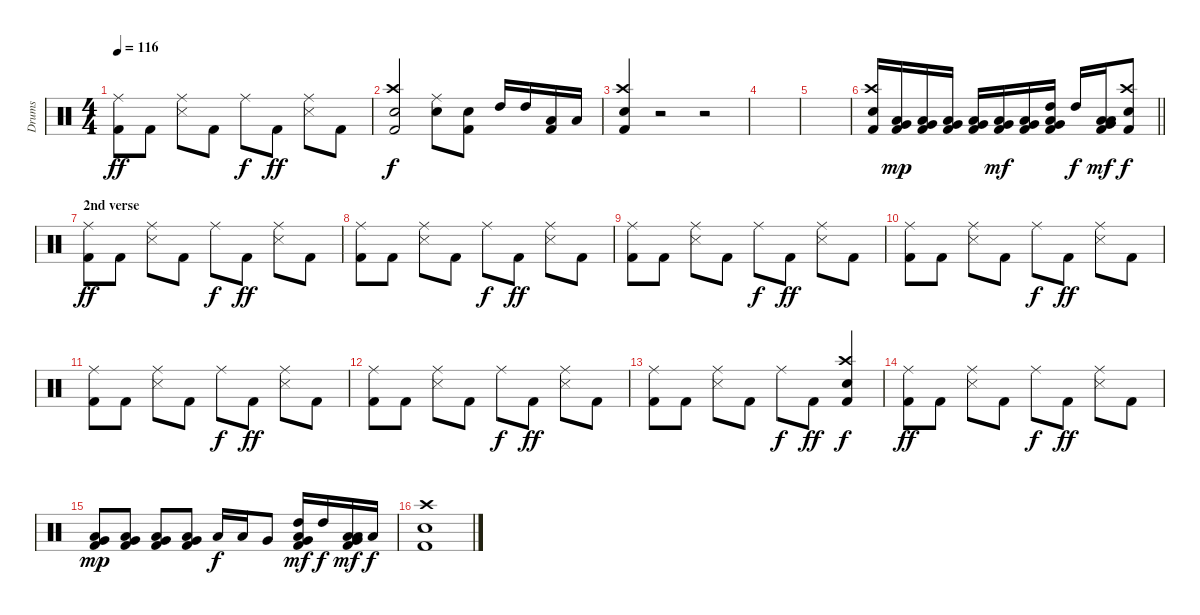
\track ("Drums" "Drums") {instrument percussion}
\staff {score}
\articulation defaults
\ts (4 4)
\tempo 116
\clef neutral
\ks c
("Ride (middle)" "Kick (hit) 2").8{dy ff} "Kick (hit) 2".8 ("Ride (middle)" "Snare (side stick) 3").8 "Kick (hit) 2".8 "Ride (middle)".8{dy f} "Kick (hit) 2".8{dy ff} ("Ride (middle)" "Snare (side stick) 3").8 "Kick (hit) 2".8 |
("Crash high (hit)" "Electric Snare (hit)" "Kick (hit) 2").2{dy f} ("Ride (middle)" "Snare (hit) 2").8 ("Snare (hit) 2" "Kick (hit) 2").8 "High Tom (hit)".16 "High Tom (hit)".16 ("Low Tom (hit)" "Kick (hit) 2").16 "Low Tom (hit)".16 |
("Crash high (hit)" "Electric Snare (hit)" "Kick (hit) 2").4 r.2 r.2 |
|
|
\barLineRight lightlight
("Crash high (hit)" "Electric Snare (hit)" "Kick (hit) 2").16{volume 16} ("Very Low Tom (hit)" "Low Tom (hit)" "Kick (hit) 2").16{dy mp volume 16} ("Very Low Tom (hit)" "Low Tom (hit)" "Kick (hit) 2").16{volume 16} ("Very Low Tom (hit)" "Low Tom (hit)" "Kick (hit) 2").16{volume 16} ("Very Low Tom (hit)" "Low Tom (hit)" "Kick (hit) 2").16{volume 16} ("Very Low Tom (hit)" "Low Tom (hit)" "Kick (hit) 2").16{dy mf volume 16} ("Very Low Tom (hit)" "Low Tom (hit)" "Kick (hit) 2").16{volume 16} ("Very Low Tom (hit)" "Low Tom (hit)" "High Tom (hit)" "Kick (hit) 2").16{volume 16} "High Tom (hit)".16{dy f volume 16} ("Very Low Tom (hit)" "Low Tom (hit)" "Low Tom (hit)" "Kick (hit) 2").16{dy mf volume 16} ("Crash high (hit)" "Electric Snare (hit)" "Kick (hit) 2").8{dy f volume 16} |
\section ("" "2nd verse")
("Ride (middle)" "Kick (hit) 2").8{dy ff} "Kick (hit) 2".8 ("Ride (middle)" "Snare (side stick) 3").8 "Kick (hit) 2".8 "Ride (middle)".8{dy f} "Kick (hit) 2".8{dy ff} ("Ride (middle)" "Snare (side stick) 3").8 "Kick (hit) 2".8 |
("Ride (middle)" "Kick (hit) 2").8 "Kick (hit) 2".8 ("Ride (middle)" "Snare (side stick) 3").8 "Kick (hit) 2".8 "Ride (middle)".8{dy f} "Kick (hit) 2".8{dy ff} ("Ride (middle)" "Snare (side stick) 3").8 "Kick (hit) 2".8 |
("Ride (middle)" "Kick (hit) 2").8 "Kick (hit) 2".8 ("Ride (middle)" "Snare (side stick) 3").8 "Kick (hit) 2".8 "Ride (middle)".8{dy f} "Kick (hit) 2".8{dy ff} ("Ride (middle)" "Snare (side stick) 3").8 "Kick (hit) 2".8 |
("Ride (middle)" "Kick (hit) 2").8 "Kick (hit) 2".8 ("Ride (middle)" "Snare (side stick) 3").8 "Kick (hit) 2".8 "Ride (middle)".8{dy f} "Kick (hit) 2".8{dy ff} ("Ride (middle)" "Snare (side stick) 3").8 "Kick (hit) 2".8 |
("Ride (middle)" "Kick (hit) 2").8 "Kick (hit) 2".8 ("Ride (middle)" "Snare (side stick) 3").8 "Kick (hit) 2".8 "Ride (middle)".8{dy f} "Kick (hit) 2".8{dy ff} ("Ride (middle)" "Snare (side stick) 3").8 "Kick (hit) 2".8 |
("Ride (middle)" "Kick (hit) 2").8 "Kick (hit) 2".8 ("Ride (middle)" "Snare (side stick) 3").8 "Kick (hit) 2".8 "Ride (middle)".8{dy f} "Kick (hit) 2".8{dy ff} ("Ride (middle)" "Snare (side stick) 3").8 "Kick (hit) 2".8 |
("Ride (middle)" "Kick (hit) 2").8 "Kick (hit) 2".8 ("Ride (middle)" "Snare (side stick) 3").8 "Kick (hit) 2".8 "Ride (middle)".8{dy f} "Kick (hit) 2".8{dy ff} ("Crash high (hit)" "Electric Snare (hit)" "Kick (hit) 2").4{dy f} |
("Ride (middle)" "Kick (hit) 2").8{dy ff} "Kick (hit) 2".8 ("Ride (middle)" "Snare (side stick) 3").8 "Kick (hit) 2".8 "Ride (middle)".8{dy f} "Kick (hit) 2".8{dy ff} ("Ride (middle)" "Snare (side stick) 3").8 "Kick (hit) 2".8 |
("Very Low Tom (hit)" "Low Tom (hit)" "Kick (hit) 2").8{dy mp volume 16} ("Very Low Tom (hit)" "Low Tom (hit)" "Kick (hit) 2").8{volume 16} ("Very Low Tom (hit)" "Low Tom (hit)" "Kick (hit) 2").8{volume 16} ("Very Low Tom (hit)" "Low Tom (hit)" "Kick (hit) 2").8{volume 16} "Low Tom (hit)".16{dy f volume 16} "Low Tom (hit)".16{volume 16} "Very Low Tom (hit)".8{volume 16} ("Very Low Tom (hit)" "Low Tom (hit)" "High Tom (hit)" "Kick (hit) 2").16{dy mf volume 16} "High Tom (hit)".16{dy f volume 16} ("Very Low Tom (hit)" "Low Tom (hit)" "Low Tom (hit)" "Kick (hit) 2").16{dy mf volume 16} "Low Tom (hit)".16{dy f volume 16} |
("Crash high (hit)" "Electric Snare (hit)" "Kick (hit) 2").1{volume 16}
